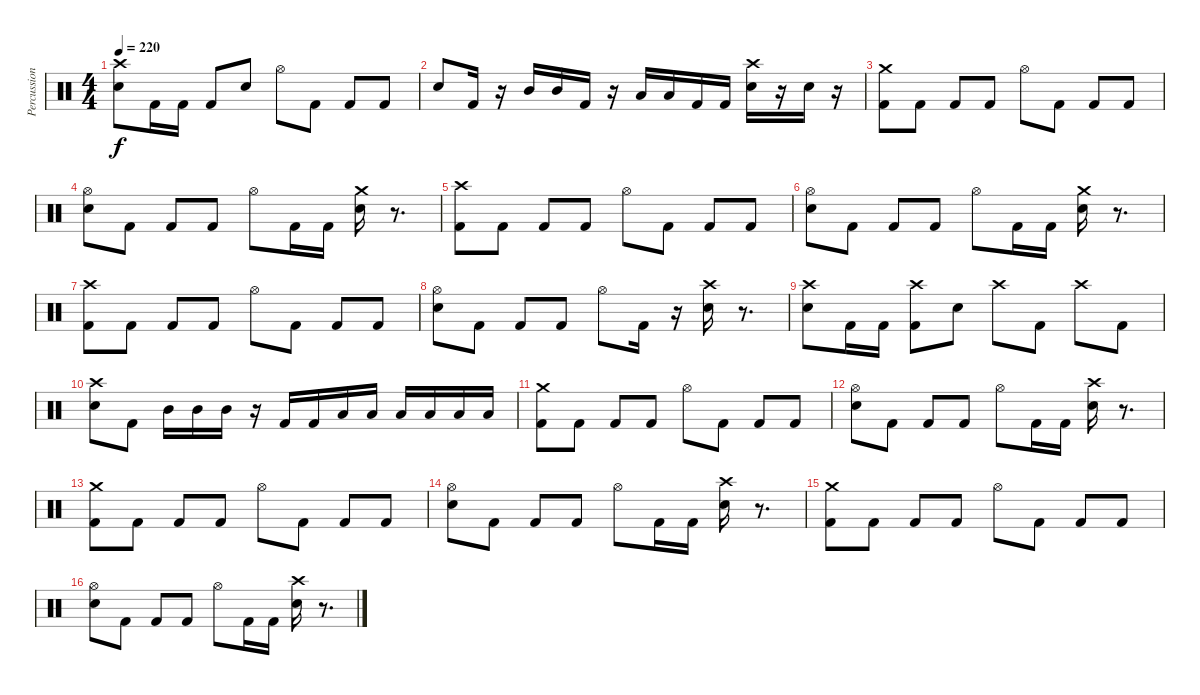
\track ("Percussion (Dan Wilding)" "Percussion") {instrument percussion}
\staff {score}
\articulation defaults
\ts (4 4)
\tempo 220
\clef neutral
\ks c
("Crash high (hit)" "Electric Snare (hit)").8{dy f} "Kick (hit) 2".16 "Kick (hit) 2".16 "Kick (hit) 2".8 "Electric Snare (hit)".8 "Hi-Hat (open)".8 "Kick (hit) 2".8 "Kick (hit) 2".8 "Kick (hit) 2".8 |
"Electric Snare (hit)".8 "Kick (hit) 2".16 r.16 "Mid Tom (hit)".16 "Mid Tom (hit)".16 "Kick (hit) 2".16 r.16 "Low Tom (hit)".16 "Low Tom (hit)".16 "Kick (hit) 2".16 "Kick (hit) 2".16 ("Crash high (hit)" "Electric Snare (hit)").16 r.16 "Electric Snare (hit)".16 r.16 |
("Crash medium (hit)" "Kick (hit) 2").8 "Kick (hit) 2".8 "Kick (hit) 2".8 "Kick (hit) 2".8 "Hi-Hat (open)".8 "Kick (hit) 2".8 "Kick (hit) 2".8 "Kick (hit) 2".8 |
("Hi-Hat (open)" "Electric Snare (hit)").8 "Kick (hit) 2".8 "Kick (hit) 2".8 "Kick (hit) 2".8 "Hi-Hat (open)".8 "Kick (hit) 2".16 "Kick (hit) 2".16 ("Crash medium (hit)" "Electric Snare (hit)").16 r.8{d} |
("Crash high (hit)" "Kick (hit) 2").8 "Kick (hit) 2".8 "Kick (hit) 2".8 "Kick (hit) 2".8 "Hi-Hat (open)".8 "Kick (hit) 2".8 "Kick (hit) 2".8 "Kick (hit) 2".8 |
("Hi-Hat (open)" "Electric Snare (hit)").8 "Kick (hit) 2".8 "Kick (hit) 2".8 "Kick (hit) 2".8 "Hi-Hat (open)".8 "Kick (hit) 2".16 "Kick (hit) 2".16 ("Crash medium (hit)" "Electric Snare (hit)").16 r.8{d} |
("Crash high (hit)" "Kick (hit) 2").8 "Kick (hit) 2".8 "Kick (hit) 2".8 "Kick (hit) 2".8 "Hi-Hat (open)".8 "Kick (hit) 2".8 "Kick (hit) 2".8 "Kick (hit) 2".8 |
("Hi-Hat (open)" "Electric Snare (hit)").8 "Kick (hit) 2".8 "Kick (hit) 2".8 "Kick (hit) 2".8 "Hi-Hat (open)".8 "Kick (hit) 2".16 r.16 ("Crash high (hit)" "Electric Snare (hit)").16 r.8{d} |
("Crash high (hit)" "Electric Snare (hit)").8 "Kick (hit) 2".16 "Kick (hit) 2".16 ("Crash high (hit)" "Kick (hit) 2").8 "Electric Snare (hit)".8 "Crash high (hit)".8 "Kick (hit) 2".8 "Crash high (hit)".8 "Kick (hit) 2".8 |
("Crash high (hit)" "Electric Snare (hit)").8 "Kick (hit) 2".8 "Mid Tom (hit)".16 "Mid Tom (hit)".16 "Mid Tom (hit)".16 r.16 "Kick (hit) 2".16 "Kick (hit) 2".16 "Low Tom (hit)".16 "Low Tom (hit)".16 "Low Tom (hit)".16 "Low Tom (hit)".16 "Low Tom (hit)".16 "Low Tom (hit)".16 |
("Crash medium (hit)" "Kick (hit) 2").8 "Kick (hit) 2".8 "Kick (hit) 2".8 "Kick (hit) 2".8 "Hi-Hat (open)".8 "Kick (hit) 2".8 "Kick (hit) 2".8 "Kick (hit) 2".8 |
("Hi-Hat (open)" "Electric Snare (hit)").8 "Kick (hit) 2".8 "Kick (hit) 2".8 "Kick (hit) 2".8 "Hi-Hat (open)".8 "Kick (hit) 2".16 "Kick (hit) 2".16 ("Crash high (hit)" "Electric Snare (hit)").16 r.8{d} |
("Crash medium (hit)" "Kick (hit) 2").8 "Kick (hit) 2".8 "Kick (hit) 2".8 "Kick (hit) 2".8 "Hi-Hat (open)".8 "Kick (hit) 2".8 "Kick (hit) 2".8 "Kick (hit) 2".8 |
("Hi-Hat (open)" "Electric Snare (hit)").8 "Kick (hit) 2".8 "Kick (hit) 2".8 "Kick (hit) 2".8 "Hi-Hat (open)".8 "Kick (hit) 2".16 "Kick (hit) 2".16 ("Crash high (hit)" "Electric Snare (hit)").16 r.8{d} |
("Crash medium (hit)" "Kick (hit) 2").8 "Kick (hit) 2".8 "Kick (hit) 2".8 "Kick (hit) 2".8 "Hi-Hat (open)".8 "Kick (hit) 2".8 "Kick (hit) 2".8 "Kick (hit) 2".8 |
("Hi-Hat (open)" "Electric Snare (hit)").8 "Kick (hit) 2".8 "Kick (hit) 2".8 "Kick (hit) 2".8 "Hi-Hat (open)".8 "Kick (hit) 2".16 "Kick (hit) 2".16 ("Crash high (hit)" "Electric Snare (hit)").16 r.8{d}
